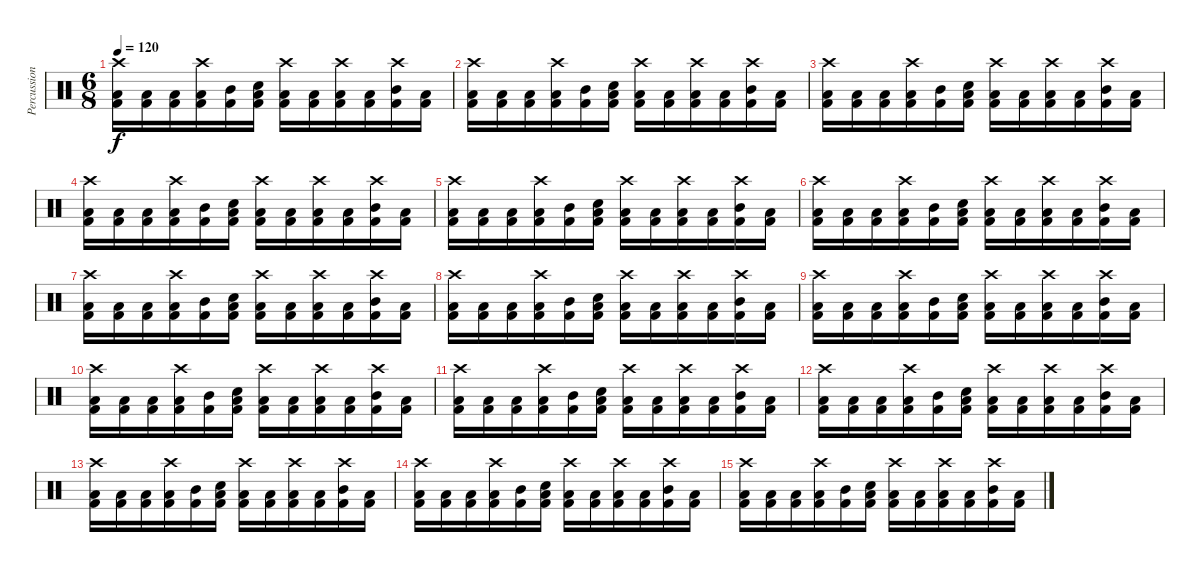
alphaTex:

\track ("Percussion" "Percussion") {instrument percussion}
\staff {score}
\articulation defaults
\ts (6 8)
\tempo 120
\clef neutral
\ks c
("Crash high (hit)" "Low Floor Tom (hit)" "Kick (hit) 2").16{dy f} ("Low Tom (hit)" "Kick (hit) 2").16 ("Low Floor Tom (hit)" "Kick (hit) 2").16 ("Crash high (hit)" "Low Floor Tom (hit)" "Kick (hit) 2").16 ("Mid Tom (hit)" "Kick (hit) 2").16 ("Low Tom (hit)" "Electric Snare (hit)" "Kick (hit) 2").16 ("Crash high (hit)" "Low Floor Tom (hit)" "Kick (hit) 2").16 ("Low Floor Tom (hit)" "Kick (hit) 2").16 ("Crash high (hit)" "Low Floor Tom (hit)" "Kick (hit) 2").16 ("Low Tom (hit)" "Kick (hit) 2").16 ("Crash high (hit)" "Mid Tom (hit)" "Kick (hit) 2").16 ("Low Tom (hit)" "Kick (hit) 2").16 |
("Crash high (hit)" "Low Floor Tom (hit)" "Kick (hit) 2").16 ("Low Tom (hit)" "Kick (hit) 2").16 ("Low Floor Tom (hit)" "Kick (hit) 2").16 ("Crash high (hit)" "Low Floor Tom (hit)" "Kick (hit) 2").16 ("Mid Tom (hit)" "Kick (hit) 2").16 ("Low Tom (hit)" "Electric Snare (hit)" "Kick (hit) 2").16 ("Crash high (hit)" "Low Floor Tom (hit)" "Kick (hit) 2").16 ("Low Floor Tom (hit)" "Kick (hit) 2").16 ("Crash high (hit)" "Low Floor Tom (hit)" "Kick (hit) 2").16 ("Low Tom (hit)" "Kick (hit) 2").16 ("Crash high (hit)" "Mid Tom (hit)" "Kick (hit) 2").16 ("Low Tom (hit)" "Kick (hit) 2").16 |
("Crash high (hit)" "Low Floor Tom (hit)" "Kick (hit) 2").16 ("Low Tom (hit)" "Kick (hit) 2").16 ("Low Floor Tom (hit)" "Kick (hit) 2").16 ("Crash high (hit)" "Low Floor Tom (hit)" "Kick (hit) 2").16 ("Mid Tom (hit)" "Kick (hit) 2").16 ("Low Tom (hit)" "Electric Snare (hit)" "Kick (hit) 2").16 ("Crash high (hit)" "Low Floor Tom (hit)" "Kick (hit) 2").16 ("Low Floor Tom (hit)" "Kick (hit) 2").16 ("Crash high (hit)" "Low Floor Tom (hit)" "Kick (hit) 2").16 ("Low Tom (hit)" "Kick (hit) 2").16 ("Crash high (hit)" "Mid Tom (hit)" "Kick (hit) 2").16 ("Low Tom (hit)" "Kick (hit) 2").16 |
("Crash high (hit)" "Low Floor Tom (hit)" "Kick (hit) 2").16 ("Low Tom (hit)" "Kick (hit) 2").16 ("Low Floor Tom (hit)" "Kick (hit) 2").16 ("Crash high (hit)" "Low Floor Tom (hit)" "Kick (hit) 2").16 ("Mid Tom (hit)" "Kick (hit) 2").16 ("Low Tom (hit)" "Electric Snare (hit)" "Kick (hit) 2").16 ("Crash high (hit)" "Low Floor Tom (hit)" "Kick (hit) 2").16 ("Low Floor Tom (hit)" "Kick (hit) 2").16 ("Crash high (hit)" "Low Floor Tom (hit)" "Kick (hit) 2").16 ("Low Tom (hit)" "Kick (hit) 2").16 ("Crash high (hit)" "Mid Tom (hit)" "Kick (hit) 2").16 ("Low Tom (hit)" "Kick (hit) 2").16 |
("Crash high (hit)" "Low Floor Tom (hit)" "Kick (hit) 2").16 ("Low Tom (hit)" "Kick (hit) 2").16 ("Low Floor Tom (hit)" "Kick (hit) 2").16 ("Crash high (hit)" "Low Floor Tom (hit)" "Kick (hit) 2").16 ("Mid Tom (hit)" "Kick (hit) 2").16 ("Low Tom (hit)" "Electric Snare (hit)" "Kick (hit) 2").16 ("Crash high (hit)" "Low Floor Tom (hit)" "Kick (hit) 2").16 ("Low Floor Tom (hit)" "Kick (hit) 2").16 ("Crash high (hit)" "Low Floor Tom (hit)" "Kick (hit) 2").16 ("Low Tom (hit)" "Kick (hit) 2").16 ("Crash high (hit)" "Mid Tom (hit)" "Kick (hit) 2").16 ("Low Tom (hit)" "Kick (hit) 2").16 |
("Crash high (hit)" "Low Floor Tom (hit)" "Kick (hit) 2").16 ("Low Tom (hit)" "Kick (hit) 2").16 ("Low Floor Tom (hit)" "Kick (hit) 2").16 ("Crash high (hit)" "Low Floor Tom (hit)" "Kick (hit) 2").16 ("Mid Tom (hit)" "Kick (hit) 2").16 ("Low Tom (hit)" "Electric Snare (hit)" "Kick (hit) 2").16 ("Crash high (hit)" "Low Floor Tom (hit)" "Kick (hit) 2").16 ("Low Floor Tom (hit)" "Kick (hit) 2").16 ("Crash high (hit)" "Low Floor Tom (hit)" "Kick (hit) 2").16 ("Low Tom (hit)" "Kick (hit) 2").16 ("Crash high (hit)" "Mid Tom (hit)" "Kick (hit) 2").16 ("Low Tom (hit)" "Kick (hit) 2").16 |
("Crash high (hit)" "Low Floor Tom (hit)" "Kick (hit) 2").16 ("Low Tom (hit)" "Kick (hit) 2").16 ("Low Floor Tom (hit)" "Kick (hit) 2").16 ("Crash high (hit)" "Low Floor Tom (hit)" "Kick (hit) 2").16 ("Mid Tom (hit)" "Kick (hit) 2").16 ("Low Tom (hit)" "Electric Snare (hit)" "Kick (hit) 2").16 ("Crash high (hit)" "Low Floor Tom (hit)" "Kick (hit) 2").16 ("Low Floor Tom (hit)" "Kick (hit) 2").16 ("Crash high (hit)" "Low Floor Tom (hit)" "Kick (hit) 2").16 ("Low Tom (hit)" "Kick (hit) 2").16 ("Crash high (hit)" "Mid Tom (hit)" "Kick (hit) 2").16 ("Low Tom (hit)" "Kick (hit) 2").16 |
("Crash high (hit)" "Low Floor Tom (hit)" "Kick (hit) 2").16 ("Low Tom (hit)" "Kick (hit) 2").16 ("Low Floor Tom (hit)" "Kick (hit) 2").16 ("Crash high (hit)" "Low Floor Tom (hit)" "Kick (hit) 2").16 ("Mid Tom (hit)" "Kick (hit) 2").16 ("Low Tom (hit)" "Electric Snare (hit)" "Kick (hit) 2").16 ("Crash high (hit)" "Low Floor Tom (hit)" "Kick (hit) 2").16 ("Low Floor Tom (hit)" "Kick (hit) 2").16 ("Crash high (hit)" "Low Floor Tom (hit)" "Kick (hit) 2").16 ("Low Tom (hit)" "Kick (hit) 2").16 ("Crash high (hit)" "Mid Tom (hit)" "Kick (hit) 2").16 ("Low Tom (hit)" "Kick (hit) 2").16 |
("Crash high (hit)" "Low Floor Tom (hit)" "Kick (hit) 2").16 ("Low Tom (hit)" "Kick (hit) 2").16 ("Low Floor Tom (hit)" "Kick (hit) 2").16 ("Crash high (hit)" "Low Floor Tom (hit)" "Kick (hit) 2").16 ("Mid Tom (hit)" "Kick (hit) 2").16 ("Low Tom (hit)" "Electric Snare (hit)" "Kick (hit) 2").16 ("Crash high (hit)" "Low Floor Tom (hit)" "Kick (hit) 2").16 ("Low Floor Tom (hit)" "Kick (hit) 2").16 ("Crash high (hit)" "Low Floor Tom (hit)" "Kick (hit) 2").16 ("Low Tom (hit)" "Kick (hit) 2").16 ("Crash high (hit)" "Mid Tom (hit)" "Kick (hit) 2").16 ("Low Tom (hit)" "Kick (hit) 2").16 |
("Crash high (hit)" "Low Floor Tom (hit)" "Kick (hit) 2").16 ("Low Tom (hit)" "Kick (hit) 2").16 ("Low Floor Tom (hit)" "Kick (hit) 2").16 ("Crash high (hit)" "Low Floor Tom (hit)" "Kick (hit) 2").16 ("Mid Tom (hit)" "Kick (hit) 2").16 ("Low Tom (hit)" "Electric Snare (hit)" "Kick (hit) 2").16 ("Crash high (hit)" "Low Floor Tom (hit)" "Kick (hit) 2").16 ("Low Floor Tom (hit)" "Kick (hit) 2").16 ("Crash high (hit)" "Low Floor Tom (hit)" "Kick (hit) 2").16 ("Low Tom (hit)" "Kick (hit) 2").16 ("Crash high (hit)" "Mid Tom (hit)" "Kick (hit) 2").16 ("Low Tom (hit)" "Kick (hit) 2").16 |
("Crash high (hit)" "Low Floor Tom (hit)" "Kick (hit) 2").16 ("Low Tom (hit)" "Kick (hit) 2").16 ("Low Floor Tom (hit)" "Kick (hit) 2").16 ("Crash high (hit)" "Low Floor Tom (hit)" "Kick (hit) 2").16 ("Mid Tom (hit)" "Kick (hit) 2").16 ("Low Tom (hit)" "Electric Snare (hit)" "Kick (hit) 2").16 ("Crash high (hit)" "Low Floor Tom (hit)" "Kick (hit) 2").16 ("Low Floor Tom (hit)" "Kick (hit) 2").16 ("Crash high (hit)" "Low Floor Tom (hit)" "Kick (hit) 2").16 ("Low Tom (hit)" "Kick (hit) 2").16 ("Crash high (hit)" "Mid Tom (hit)" "Kick (hit) 2").16 ("Low Tom (hit)" "Kick (hit) 2").16 |
("Crash high (hit)" "Low Floor Tom (hit)" "Kick (hit) 2").16 ("Low Tom (hit)" "Kick (hit) 2").16 ("Low Floor Tom (hit)" "Kick (hit) 2").16 ("Crash high (hit)" "Low Floor Tom (hit)" "Kick (hit) 2").16 ("Mid Tom (hit)" "Kick (hit) 2").16 ("Low Tom (hit)" "Electric Snare (hit)" "Kick (hit) 2").16 ("Crash high (hit)" "Low Floor Tom (hit)" "Kick (hit) 2").16 ("Low Floor Tom (hit)" "Kick (hit) 2").16 ("Crash high (hit)" "Low Floor Tom (hit)" "Kick (hit) 2").16 ("Low Tom (hit)" "Kick (hit) 2").16 ("Crash high (hit)" "Mid Tom (hit)" "Kick (hit) 2").16 ("Low Tom (hit)" "Kick (hit) 2").16 |
("Crash high (hit)" "Low Floor Tom (hit)" "Kick (hit) 2").16 ("Low Tom (hit)" "Kick (hit) 2").16 ("Low Floor Tom (hit)" "Kick (hit) 2").16 ("Crash high (hit)" "Low Floor Tom (hit)" "Kick (hit) 2").16 ("Mid Tom (hit)" "Kick (hit) 2").16 ("Low Tom (hit)" "Electric Snare (hit)" "Kick (hit) 2").16 ("Crash high (hit)" "Low Floor Tom (hit)" "Kick (hit) 2").16 ("Low Floor Tom (hit)" "Kick (hit) 2").16 ("Crash high (hit)" "Low Floor Tom (hit)" "Kick (hit) 2").16 ("Low Tom (hit)" "Kick (hit) 2").16 ("Crash high (hit)" "Mid Tom (hit)" "Kick (hit) 2").16 ("Low Tom (hit)" "Kick (hit) 2").16 |
("Crash high (hit)" "Low Floor Tom (hit)" "Kick (hit) 2").16 ("Low Tom (hit)" "Kick (hit) 2").16 ("Low Floor Tom (hit)" "Kick (hit) 2").16 ("Crash high (hit)" "Low Floor Tom (hit)" "Kick (hit) 2").16 ("Mid Tom (hit)" "Kick (hit) 2").16 ("Low Tom (hit)" "Electric Snare (hit)" "Kick (hit) 2").16 ("Crash high (hit)" "Low Floor Tom (hit)" "Kick (hit) 2").16 ("Low Floor Tom (hit)" "Kick (hit) 2").16 ("Crash high (hit)" "Low Floor Tom (hit)" "Kick (hit) 2").16 ("Low Tom (hit)" "Kick (hit) 2").16 ("Crash high (hit)" "Mid Tom (hit)" "Kick (hit) 2").16 ("Low Tom (hit)" "Kick (hit) 2").16 |
("Crash high (hit)" "Low Floor Tom (hit)" "Kick (hit) 2").16 ("Low Tom (hit)" "Kick (hit) 2").16 ("Low Floor Tom (hit)" "Kick (hit) 2").16 ("Crash high (hit)" "Low Floor Tom (hit)" "Kick (hit) 2").16 ("Mid Tom (hit)" "Kick (hit) 2").16 ("Low Tom (hit)" "Electric Snare (hit)" "Kick (hit) 2").16 ("Crash high (hit)" "Low Floor Tom (hit)" "Kick (hit) 2").16 ("Low Floor Tom (hit)" "Kick (hit) 2").16 ("Crash high (hit)" "Low Floor Tom (hit)" "Kick (hit) 2").16 ("Low Tom (hit)" "Kick (hit) 2").16 ("Crash high (hit)" "Mid Tom (hit)" "Kick (hit) 2").16 ("Low Tom (hit)" "Kick (hit) 2").16
